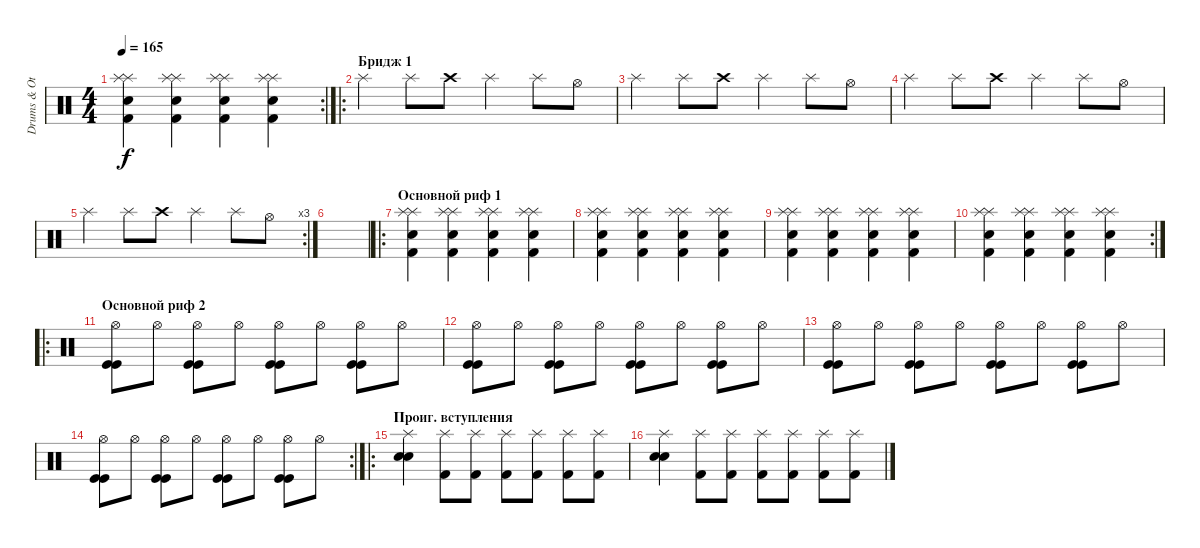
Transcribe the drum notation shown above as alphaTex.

\track ("Drums & Other percussion" "Drums & Ot") {instrument percussion}
\staff {score}
\articulation defaults
\rc 2
\ts (4 4)
\tempo 165
\clef neutral
\ks c
("Splash (hit)" "Splash (hit)" "Electric Snare (hit)" "Kick (hit) 2").4{dy f} ("Splash (hit)" "Splash (hit)" "Electric Snare (hit)" "Kick (hit) 2").4 ("Splash (hit)" "Splash (hit)" "Electric Snare (hit)" "Kick (hit) 2").4 ("Splash (hit)" "Splash (hit)" "Electric Snare (hit)" "Kick (hit) 2").4 |
\ro
\section ("" "Бридж 1")
"Splash (hit)".4 "Splash (hit)".8 "Crash high (hit)".8 "Splash (hit)".4 "Splash (hit)".8 "Hi-Hat (open)".8 |
"Splash (hit)".4 "Splash (hit)".8 "Crash high (hit)".8 "Splash (hit)".4 "Splash (hit)".8 "Hi-Hat (open)".8 |
"Splash (hit)".4 "Splash (hit)".8 "Crash high (hit)".8 "Splash (hit)".4 "Splash (hit)".8 "Hi-Hat (open)".8 |
\rc 3 "Splash (hit)".4 "Splash (hit)".8 "Crash high (hit)".8 "Splash (hit)".4 "Splash (hit)".8 "Hi-Hat (open)".8
|
|
\ro
\section ("" "Основной риф 1")
("Splash (hit)" "Splash (hit)" "Electric Snare (hit)" "Kick (hit) 2").4 ("Splash (hit)" "Splash (hit)" "Electric Snare (hit)" "Kick (hit) 2").4 ("Splash (hit)" "Splash (hit)" "Electric Snare (hit)" "Kick (hit) 2").4 ("Splash (hit)" "Splash (hit)" "Electric Snare (hit)" "Kick (hit) 2").4 |
("Splash (hit)" "Splash (hit)" "Electric Snare (hit)" "Kick (hit) 2").4 ("Splash (hit)" "Splash (hit)" "Electric Snare (hit)" "Kick (hit) 2").4 ("Splash (hit)" "Splash (hit)" "Electric Snare (hit)" "Kick (hit) 2").4 ("Splash (hit)" "Splash (hit)" "Electric Snare (hit)" "Kick (hit) 2").4 |
("Splash (hit)" "Splash (hit)" "Electric Snare (hit)" "Kick (hit) 2").4 ("Splash (hit)" "Splash (hit)" "Electric Snare (hit)" "Kick (hit) 2").4 ("Splash (hit)" "Splash (hit)" "Electric Snare (hit)" "Kick (hit) 2").4 ("Splash (hit)" "Splash (hit)" "Electric Snare (hit)" "Kick (hit) 2").4 |
\rc 2
("Splash (hit)" "Splash (hit)" "Electric Snare (hit)" "Kick (hit) 2").4 ("Splash (hit)" "Splash (hit)" "Electric Snare (hit)" "Kick (hit) 2").4 ("Splash (hit)" "Splash (hit)" "Electric Snare (hit)" "Kick (hit) 2").4 ("Splash (hit)" "Splash (hit)" "Electric Snare (hit)" "Kick (hit) 2").4 |
\ro
\section ("" "Основной риф 2")
("Hi-Hat (open)" "Kick (hit)" "Kick (hit)").8 "Hi-Hat (open)".8 ("Hi-Hat (open)" "Kick (hit)" "Kick (hit)").8 "Hi-Hat (open)".8 ("Hi-Hat (open)" "Kick (hit)" "Kick (hit)").8 "Hi-Hat (open)".8 ("Hi-Hat (open)" "Kick (hit)" "Kick (hit)").8 "Hi-Hat (open)".8 |
("Hi-Hat (open)" "Kick (hit)" "Kick (hit)").8 "Hi-Hat (open)".8 ("Hi-Hat (open)" "Kick (hit)" "Kick (hit)").8 "Hi-Hat (open)".8 ("Hi-Hat (open)" "Kick (hit)" "Kick (hit)").8 "Hi-Hat (open)".8 ("Hi-Hat (open)" "Kick (hit)" "Kick (hit)").8 "Hi-Hat (open)".8 |
("Hi-Hat (open)" "Kick (hit)" "Kick (hit)").8 "Hi-Hat (open)".8 ("Hi-Hat (open)" "Kick (hit)" "Kick (hit)").8 "Hi-Hat (open)".8 ("Hi-Hat (open)" "Kick (hit)" "Kick (hit)").8 "Hi-Hat (open)".8 ("Hi-Hat (open)" "Kick (hit)" "Kick (hit)").8 "Hi-Hat (open)".8 |
\rc 2
("Hi-Hat (open)" "Kick (hit)" "Kick (hit)").8 "Hi-Hat (open)".8 ("Hi-Hat (open)" "Kick (hit)" "Kick (hit)").8 "Hi-Hat (open)".8 ("Hi-Hat (open)" "Kick (hit)" "Kick (hit)").8 "Hi-Hat (open)".8 ("Hi-Hat (open)" "Kick (hit)" "Kick (hit)").8 "Hi-Hat (open)".8 |
\ro
\section ("" "Проиг. вступления")
("Splash (hit)" "Electric Snare (hit)" "Electric Snare (hit)").4 ("Splash (hit)" "Kick (hit) 2").8 ("Splash (hit)" "Kick (hit) 2").8 ("Splash (hit)" "Kick (hit) 2").8 ("Splash (hit)" "Kick (hit) 2").8 ("Splash (hit)" "Kick (hit) 2").8 ("Splash (hit)" "Kick (hit) 2").8 |
("Splash (hit)" "Electric Snare (hit)" "Electric Snare (hit)").4 ("Splash (hit)" "Kick (hit) 2").8 ("Splash (hit)" "Kick (hit) 2").8 ("Splash (hit)" "Kick (hit) 2").8 ("Splash (hit)" "Kick (hit) 2").8 ("Splash (hit)" "Kick (hit) 2").8 ("Splash (hit)" "Kick (hit) 2").8
